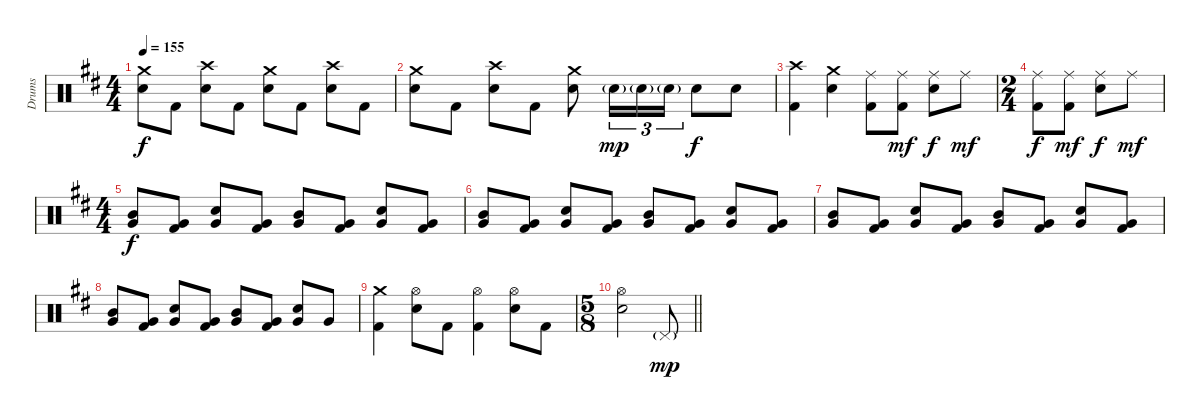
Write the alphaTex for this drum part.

\track ("Drums" "Drums") {instrument percussion}
\staff {score}
\articulation defaults
\ts (4 4)
\tempo 155
\clef neutral
\ks bminor
("Crash medium (hit)" "Electric Snare (hit)").8{dy f} "Kick (hit) 2".8 ("Crash high (hit)" "Electric Snare (hit)").8 "Kick (hit) 2".8 ("Crash medium (hit)" "Electric Snare (hit)").8 "Kick (hit) 2".8 ("Crash high (hit)" "Electric Snare (hit)").8 "Kick (hit) 2".8 |
("Crash medium (hit)" "Electric Snare (hit)").8 "Kick (hit) 2".8 ("Crash high (hit)" "Electric Snare (hit)").8 "Kick (hit) 2".8 ("Crash medium (hit)" "Electric Snare (hit)").8 "Electric Snare (hit)"{g}.16{tu (3 2) dy mp} "Electric Snare (hit)"{g}.16{tu (3 2)} "Electric Snare (hit)"{g}.16{tu (3 2)} "Electric Snare (hit)".8{dy f} "Electric Snare (hit)".8 |
("Crash high (hit)" "Kick (hit) 2").4 ("Crash medium (hit)" "Electric Snare (hit)").4 ("Ride (middle)" "Kick (hit) 2").8 ("Ride (middle)" "Kick (hit) 2").8{dy mf} ("Ride (middle)" "Electric Snare (hit)").8{dy f} "Ride (middle)".8{dy mf} |
\ts (2 4)
("Ride (middle)" "Kick (hit) 2").8{dy f} ("Ride (middle)" "Kick (hit) 2").8{dy mf} ("Ride (middle)" "Electric Snare (hit)").8{dy f} "Ride (middle)".8{dy mf} |
\ts (4 4)
("Mid Tom (hit)" "Very Low Tom (hit)").8{dy f} ("Very Low Tom (hit)" "Kick (hit) 2").8 ("Electric Snare (hit)" "Very Low Tom (hit)").8 ("Very Low Tom (hit)" "Kick (hit) 2").8 ("Mid Tom (hit)" "Very Low Tom (hit)").8 ("Very Low Tom (hit)" "Kick (hit) 2").8 ("Electric Snare (hit)" "Very Low Tom (hit)").8 ("Very Low Tom (hit)" "Kick (hit) 2").8 |
("Mid Tom (hit)" "Very Low Tom (hit)").8 ("Very Low Tom (hit)" "Kick (hit) 2").8 ("Electric Snare (hit)" "Very Low Tom (hit)").8 ("Very Low Tom (hit)" "Kick (hit) 2").8 ("Mid Tom (hit)" "Very Low Tom (hit)").8 ("Very Low Tom (hit)" "Kick (hit) 2").8 ("Electric Snare (hit)" "Very Low Tom (hit)").8 ("Very Low Tom (hit)" "Kick (hit) 2").8 |
("Mid Tom (hit)" "Very Low Tom (hit)").8 ("Very Low Tom (hit)" "Kick (hit) 2").8 ("Electric Snare (hit)" "Very Low Tom (hit)").8 ("Very Low Tom (hit)" "Kick (hit) 2").8 ("Mid Tom (hit)" "Very Low Tom (hit)").8 ("Very Low Tom (hit)" "Kick (hit) 2").8 ("Electric Snare (hit)" "Very Low Tom (hit)").8 ("Very Low Tom (hit)" "Kick (hit) 2").8 |
("Mid Tom (hit)" "Very Low Tom (hit)").8 ("Very Low Tom (hit)" "Kick (hit) 2").8 ("Electric Snare (hit)" "Very Low Tom (hit)").8 ("Very Low Tom (hit)" "Kick (hit) 2").8 ("Mid Tom (hit)" "Very Low Tom (hit)").8 ("Very Low Tom (hit)" "Kick (hit) 2").8 ("Electric Snare (hit)" "Very Low Tom (hit)").8 "Very Low Tom (hit)".8 |
("Crash medium (hit)" "Kick (hit) 2").4 ("Hi-Hat (open)" "Electric Snare (hit)").8 "Kick (hit) 2".8 ("Hi-Hat (open)" "Kick (hit) 2").4 ("Hi-Hat (open)" "Electric Snare (hit)").8 "Kick (hit) 2".8 |
\ts (5 8)
\barLineRight lightlight
("Hi-Hat (open)" "Electric Snare (hit)").2 "Pedal Hi-Hat (hit)"{g}.8{dy mp}
